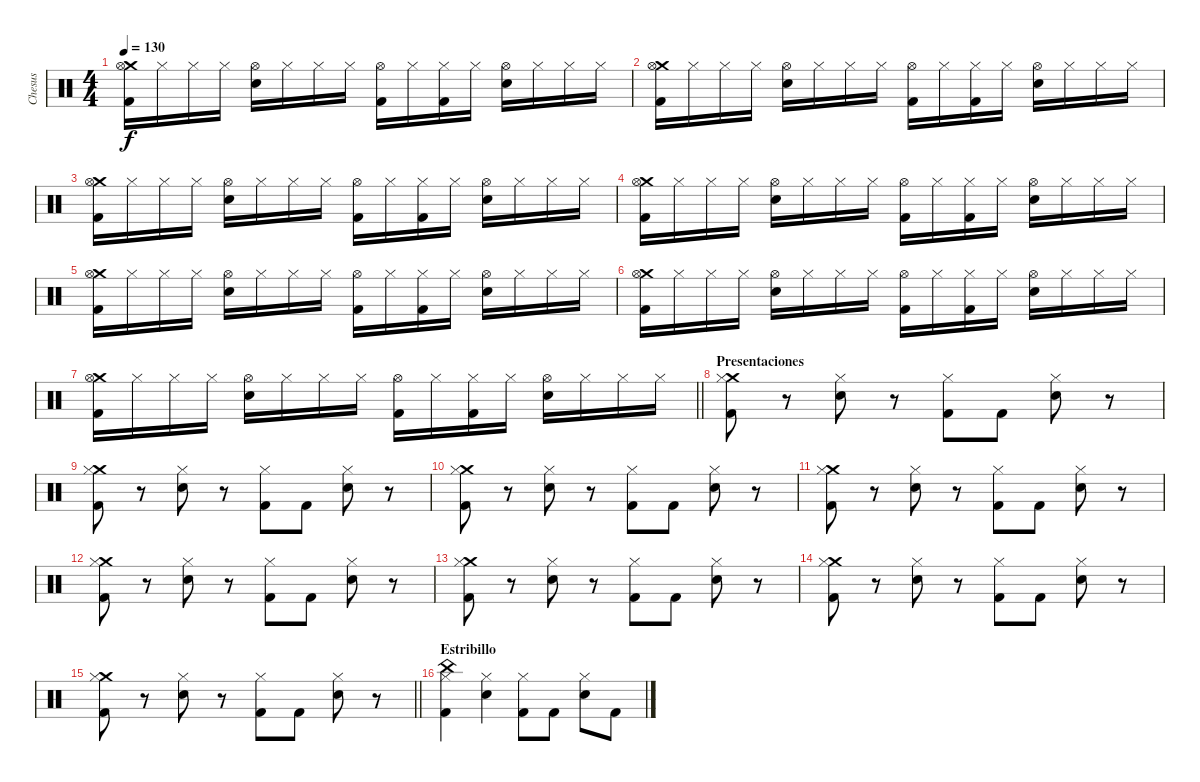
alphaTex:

\track ("Chesus" "Chesus") {instrument percussion}
\staff {score}
\articulation defaults
\ts (4 4)
\tempo 130
\clef neutral
\ks c
("Crash medium (hit)" "Hi-Hat (open)" "Kick (hit) 2").16{dy f} "Hi-Hat (closed)".16 "Hi-Hat (closed)".16 "Hi-Hat (closed)".16 ("Hi-Hat (open)" "Snare (hit) 2").16 "Hi-Hat (closed)".16 "Hi-Hat (closed)".16 "Hi-Hat (closed)".16 ("Hi-Hat (open)" "Kick (hit) 2").16 "Hi-Hat (closed)".16 ("Hi-Hat (closed)" "Kick (hit) 2").16 "Hi-Hat (closed)".16 ("Hi-Hat (open)" "Snare (hit) 2").16 "Hi-Hat (closed)".16 "Hi-Hat (closed)".16 "Hi-Hat (closed)".16 |
("Crash medium (hit)" "Hi-Hat (open)" "Kick (hit) 2").16 "Hi-Hat (closed)".16 "Hi-Hat (closed)".16 "Hi-Hat (closed)".16 ("Hi-Hat (open)" "Snare (hit) 2").16 "Hi-Hat (closed)".16 "Hi-Hat (closed)".16 "Hi-Hat (closed)".16 ("Hi-Hat (open)" "Kick (hit) 2").16 "Hi-Hat (closed)".16 ("Hi-Hat (closed)" "Kick (hit) 2").16 "Hi-Hat (closed)".16 ("Hi-Hat (open)" "Snare (hit) 2").16 "Hi-Hat (closed)".16 "Hi-Hat (closed)".16 "Hi-Hat (closed)".16 |
("Crash medium (hit)" "Hi-Hat (open)" "Kick (hit) 2").16 "Hi-Hat (closed)".16 "Hi-Hat (closed)".16 "Hi-Hat (closed)".16 ("Hi-Hat (open)" "Snare (hit) 2").16 "Hi-Hat (closed)".16 "Hi-Hat (closed)".16 "Hi-Hat (closed)".16 ("Hi-Hat (open)" "Kick (hit) 2").16 "Hi-Hat (closed)".16 ("Hi-Hat (closed)" "Kick (hit) 2").16 "Hi-Hat (closed)".16 ("Hi-Hat (open)" "Snare (hit) 2").16 "Hi-Hat (closed)".16 "Hi-Hat (closed)".16 "Hi-Hat (closed)".16 |
("Crash medium (hit)" "Hi-Hat (open)" "Kick (hit) 2").16 "Hi-Hat (closed)".16 "Hi-Hat (closed)".16 "Hi-Hat (closed)".16 ("Hi-Hat (open)" "Snare (hit) 2").16 "Hi-Hat (closed)".16 "Hi-Hat (closed)".16 "Hi-Hat (closed)".16 ("Hi-Hat (open)" "Kick (hit) 2").16 "Hi-Hat (closed)".16 ("Hi-Hat (closed)" "Kick (hit) 2").16 "Hi-Hat (closed)".16 ("Hi-Hat (open)" "Snare (hit) 2").16 "Hi-Hat (closed)".16 "Hi-Hat (closed)".16 "Hi-Hat (closed)".16 |
("Crash medium (hit)" "Hi-Hat (open)" "Kick (hit) 2").16 "Hi-Hat (closed)".16 "Hi-Hat (closed)".16 "Hi-Hat (closed)".16 ("Hi-Hat (open)" "Snare (hit) 2").16 "Hi-Hat (closed)".16 "Hi-Hat (closed)".16 "Hi-Hat (closed)".16 ("Hi-Hat (open)" "Kick (hit) 2").16 "Hi-Hat (closed)".16 ("Hi-Hat (closed)" "Kick (hit) 2").16 "Hi-Hat (closed)".16 ("Hi-Hat (open)" "Snare (hit) 2").16 "Hi-Hat (closed)".16 "Hi-Hat (closed)".16 "Hi-Hat (closed)".16 |
("Crash medium (hit)" "Hi-Hat (open)" "Kick (hit) 2").16 "Hi-Hat (closed)".16 "Hi-Hat (closed)".16 "Hi-Hat (closed)".16 ("Hi-Hat (open)" "Snare (hit) 2").16 "Hi-Hat (closed)".16 "Hi-Hat (closed)".16 "Hi-Hat (closed)".16 ("Hi-Hat (open)" "Kick (hit) 2").16 "Hi-Hat (closed)".16 ("Hi-Hat (closed)" "Kick (hit) 2").16 "Hi-Hat (closed)".16 ("Hi-Hat (open)" "Snare (hit) 2").16 "Hi-Hat (closed)".16 "Hi-Hat (closed)".16 "Hi-Hat (closed)".16 |
\barLineRight lightlight
("Crash medium (hit)" "Hi-Hat (open)" "Kick (hit) 2").16 "Hi-Hat (closed)".16 "Hi-Hat (closed)".16 "Hi-Hat (closed)".16 ("Hi-Hat (open)" "Snare (hit) 2").16 "Hi-Hat (closed)".16 "Hi-Hat (closed)".16 "Hi-Hat (closed)".16 ("Hi-Hat (open)" "Kick (hit) 2").16 "Hi-Hat (closed)".16 ("Hi-Hat (closed)" "Kick (hit) 2").16 "Hi-Hat (closed)".16 ("Hi-Hat (open)" "Snare (hit) 2").16 "Hi-Hat (closed)".16 "Hi-Hat (closed)".16 "Hi-Hat (closed)".16 |
\section ("" "Presentaciones")
("Crash medium (hit)" "Hi-Hat (closed)" "Kick (hit) 2").8 r.8 ("Hi-Hat (closed)" "Snare (hit) 2").8 r.8 ("Hi-Hat (closed)" "Kick (hit) 2").8 "Kick (hit) 2".8 ("Hi-Hat (closed)" "Snare (hit) 2").8 r.8 |
("Crash medium (hit)" "Hi-Hat (closed)" "Kick (hit) 2").8 r.8 ("Hi-Hat (closed)" "Snare (hit) 2").8 r.8 ("Hi-Hat (closed)" "Kick (hit) 2").8 "Kick (hit) 2".8 ("Hi-Hat (closed)" "Snare (hit) 2").8 r.8 |
("Crash medium (hit)" "Hi-Hat (closed)" "Kick (hit) 2").8 r.8 ("Hi-Hat (closed)" "Snare (hit) 2").8 r.8 ("Hi-Hat (closed)" "Kick (hit) 2").8 "Kick (hit) 2".8 ("Hi-Hat (closed)" "Snare (hit) 2").8 r.8 |
("Crash medium (hit)" "Hi-Hat (closed)" "Kick (hit) 2").8 r.8 ("Hi-Hat (closed)" "Snare (hit) 2").8 r.8 ("Hi-Hat (closed)" "Kick (hit) 2").8 "Kick (hit) 2".8 ("Hi-Hat (closed)" "Snare (hit) 2").8 r.8 |
("Crash medium (hit)" "Hi-Hat (closed)" "Kick (hit) 2").8 r.8 ("Hi-Hat (closed)" "Snare (hit) 2").8 r.8 ("Hi-Hat (closed)" "Kick (hit) 2").8 "Kick (hit) 2".8 ("Hi-Hat (closed)" "Snare (hit) 2").8 r.8 |
("Crash medium (hit)" "Hi-Hat (closed)" "Kick (hit) 2").8 r.8 ("Hi-Hat (closed)" "Snare (hit) 2").8 r.8 ("Hi-Hat (closed)" "Kick (hit) 2").8 "Kick (hit) 2".8 ("Hi-Hat (closed)" "Snare (hit) 2").8 r.8 |
("Crash medium (hit)" "Hi-Hat (closed)" "Kick (hit) 2").8 r.8 ("Hi-Hat (closed)" "Snare (hit) 2").8 r.8 ("Hi-Hat (closed)" "Kick (hit) 2").8 "Kick (hit) 2".8 ("Hi-Hat (closed)" "Snare (hit) 2").8 r.8 |
\barLineRight lightlight
("Crash medium (hit)" "Hi-Hat (closed)" "Kick (hit) 2").8 r.8 ("Hi-Hat (closed)" "Snare (hit) 2").8 r.8 ("Hi-Hat (closed)" "Kick (hit) 2").8 "Kick (hit) 2".8 ("Hi-Hat (closed)" "Snare (hit) 2").8 r.8 |
\section ("" "Estribillo")
("China (hit)" "Hi-Hat (closed)" "Kick (hit) 2").4 ("Hi-Hat (closed)" "Snare (hit) 2").4 ("Hi-Hat (closed)" "Kick (hit) 2").8 "Kick (hit) 2".8 ("Hi-Hat (closed)" "Snare (hit) 2").8 "Kick (hit) 2".8
